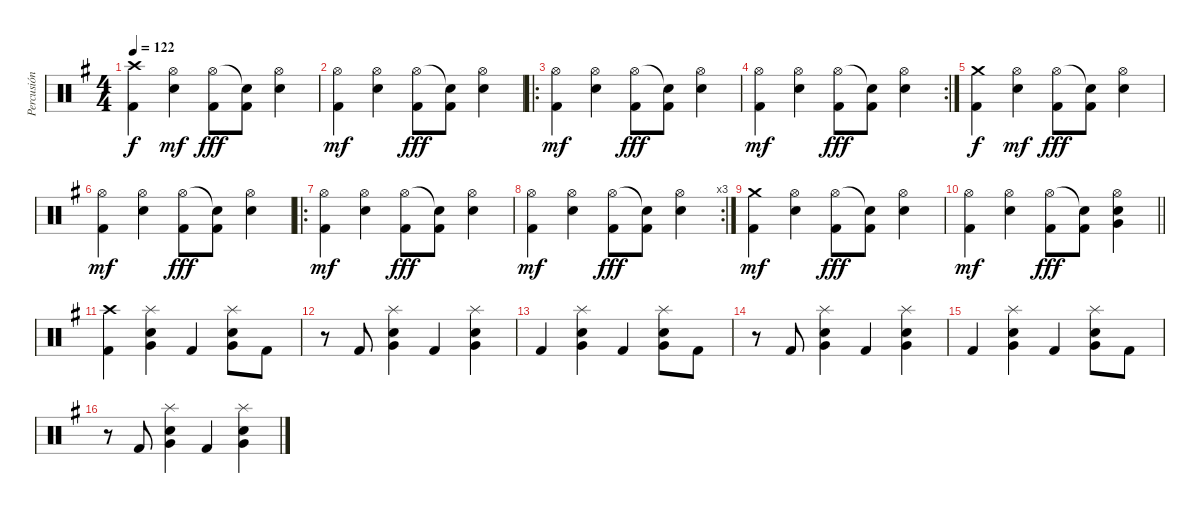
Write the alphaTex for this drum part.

\track ("Percusión" "Percusión") {instrument percussion}
\staff {score}
\articulation defaults
\ts (4 4)
\tempo 122
\clef neutral
\ks g
("Crash high (hit)" "Kick (hit) 2").4{dy f} ("Hi-Hat (open)" "Snare (hit) 2").4{dy mf} ("Hi-Hat (open)" "Kick (hit) 2").8{dy fff} ("Snare (hit)"{t} "Kick (hit) 2").8 ("Hi-Hat (open)" "Snare (hit) 2").4 |
("Hi-Hat (open)" "Kick (hit) 2").4{dy mf} ("Hi-Hat (open)" "Snare (hit) 2").4 ("Hi-Hat (open)" "Kick (hit) 2").8{dy fff} ("Snare (hit)"{t} "Kick (hit) 2").8 ("Hi-Hat (open)" "Snare (hit) 2").4 |
\ro
("Hi-Hat (open)" "Kick (hit) 2").4{dy mf} ("Hi-Hat (open)" "Snare (hit) 2").4 ("Hi-Hat (open)" "Kick (hit) 2").8{dy fff} ("Snare (hit)"{t} "Kick (hit) 2").8 ("Hi-Hat (open)" "Snare (hit) 2").4 |
\rc 2
("Hi-Hat (open)" "Kick (hit) 2").4{dy mf} ("Hi-Hat (open)" "Snare (hit) 2").4 ("Hi-Hat (open)" "Kick (hit) 2").8{dy fff} ("Snare (hit)"{t} "Kick (hit) 2").8 ("Hi-Hat (open)" "Snare (hit) 2").4 |
("Crash medium (hit)" "Kick (hit) 2").4{dy f} ("Hi-Hat (open)" "Snare (hit) 2").4{dy mf} ("Hi-Hat (open)" "Kick (hit) 2").8{dy fff} ("Snare (hit)"{t} "Kick (hit) 2").8 ("Hi-Hat (open)" "Snare (hit) 2").4 |
("Hi-Hat (open)" "Kick (hit) 2").4{dy mf} ("Hi-Hat (open)" "Snare (hit) 2").4 ("Hi-Hat (open)" "Kick (hit) 2").8{dy fff} ("Snare (hit)"{t} "Kick (hit) 2").8 ("Hi-Hat (open)" "Snare (hit) 2").4 |
\ro
("Hi-Hat (open)" "Kick (hit) 2").4{dy mf} ("Hi-Hat (open)" "Snare (hit) 2").4 ("Hi-Hat (open)" "Kick (hit) 2").8{dy fff} ("Snare (hit)"{t} "Kick (hit) 2").8 ("Hi-Hat (open)" "Snare (hit) 2").4 |
\rc 3
("Hi-Hat (open)" "Kick (hit) 2").4{dy mf} ("Hi-Hat (open)" "Snare (hit) 2").4 ("Hi-Hat (open)" "Kick (hit) 2").8{dy fff} ("Snare (hit)"{t} "Kick (hit) 2").8 ("Hi-Hat (open)" "Snare (hit) 2").4 |
("Crash medium (hit)" "Kick (hit) 2").4{dy mf} ("Hi-Hat (open)" "Snare (hit) 2").4 ("Hi-Hat (open)" "Kick (hit) 2").8{dy fff} ("Snare (hit)"{t} "Kick (hit) 2").8 ("Hi-Hat (open)" "Snare (hit) 2").4 |
\barLineRight lightlight
("Hi-Hat (open)" "Kick (hit) 2").4{dy mf} ("Hi-Hat (open)" "Snare (hit) 2").4 ("Hi-Hat (open)" "Kick (hit) 2").8{dy fff} ("Snare (hit)"{t} "Kick (hit) 2").8 ("Hi-Hat (open)" "Very Low Tom (hit)" "Snare (hit) 2").4 |
("Crash high (hit)" "Kick (hit) 2").4 ("Splash (hit)" "Very Low Tom (hit)" "Snare (hit) 2").4 "Kick (hit) 2".4 ("Splash (hit)" "Very Low Tom (hit)" "Snare (hit) 2").8 "Kick (hit) 2".8 |
r.8 "Kick (hit) 2".8 ("Splash (hit)" "Very Low Tom (hit)" "Snare (hit) 2").4 "Kick (hit) 2".4 ("Splash (hit)" "Very Low Tom (hit)" "Snare (hit) 2").4 |
"Kick (hit) 2".4 ("Splash (hit)" "Very Low Tom (hit)" "Snare (hit) 2").4 "Kick (hit) 2".4 ("Splash (hit)" "Very Low Tom (hit)" "Snare (hit) 2").8 "Kick (hit) 2".8 |
r.8 "Kick (hit) 2".8 ("Splash (hit)" "Very Low Tom (hit)" "Snare (hit) 2").4 "Kick (hit) 2".4 ("Splash (hit)" "Very Low Tom (hit)" "Snare (hit) 2").4 |
"Kick (hit) 2".4 ("Splash (hit)" "Very Low Tom (hit)" "Snare (hit) 2").4 "Kick (hit) 2".4 ("Splash (hit)" "Very Low Tom (hit)" "Snare (hit) 2").8 "Kick (hit) 2".8 |
r.8 "Kick (hit) 2".8 ("Splash (hit)" "Very Low Tom (hit)" "Snare (hit) 2").4 "Kick (hit) 2".4 ("Splash (hit)" "Very Low Tom (hit)" "Snare (hit) 2").4
